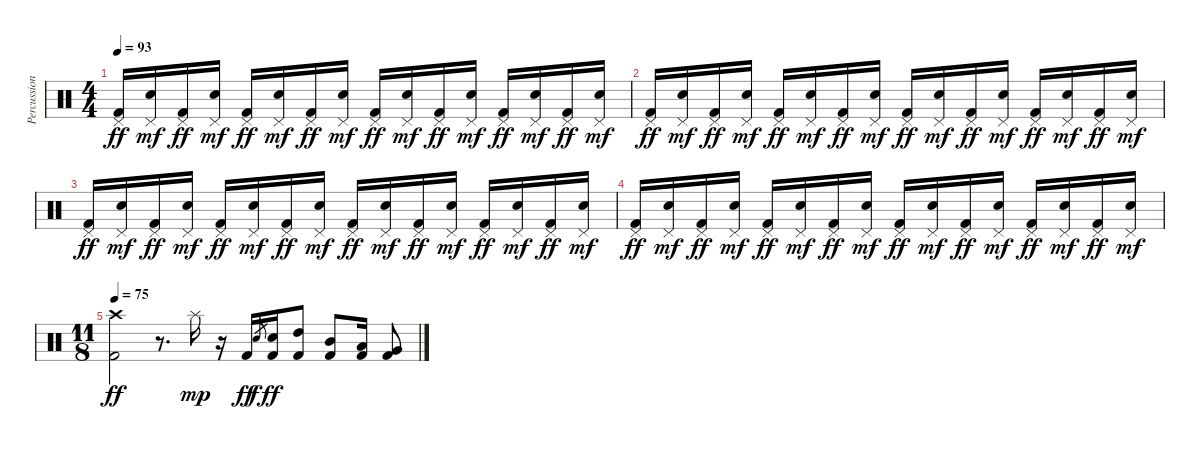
\track ("Percussion" "Percussion") {instrument percussion}
\staff {score}
\articulation defaults
\ts (4 4)
\section ("" "")
\tempo 93
\clef neutral
\ks c
("Pedal Hi-Hat (hit)" "Kick (hit) 2").16{dy ff} ("Pedal Hi-Hat (hit)" "Electric Snare (hit)").16{dy mf} ("Pedal Hi-Hat (hit)" "Kick (hit) 2").16{dy ff} ("Pedal Hi-Hat (hit)" "Electric Snare (hit)").16{dy mf} ("Pedal Hi-Hat (hit)" "Kick (hit) 2").16{dy ff} ("Pedal Hi-Hat (hit)" "Electric Snare (hit)").16{dy mf} ("Pedal Hi-Hat (hit)" "Kick (hit) 2").16{dy ff} ("Pedal Hi-Hat (hit)" "Electric Snare (hit)").16{dy mf} ("Pedal Hi-Hat (hit)" "Kick (hit) 2").16{dy ff} ("Pedal Hi-Hat (hit)" "Electric Snare (hit)").16{dy mf} ("Pedal Hi-Hat (hit)" "Kick (hit) 2").16{dy ff} ("Pedal Hi-Hat (hit)" "Electric Snare (hit)").16{dy mf} ("Pedal Hi-Hat (hit)" "Kick (hit) 2").16{dy ff} ("Pedal Hi-Hat (hit)" "Electric Snare (hit)").16{dy mf} ("Pedal Hi-Hat (hit)" "Kick (hit) 2").16{dy ff} ("Pedal Hi-Hat (hit)" "Electric Snare (hit)").16{dy mf} |
("Pedal Hi-Hat (hit)" "Kick (hit) 2").16{dy ff} ("Pedal Hi-Hat (hit)" "Electric Snare (hit)").16{dy mf} ("Pedal Hi-Hat (hit)" "Kick (hit) 2").16{dy ff} ("Pedal Hi-Hat (hit)" "Electric Snare (hit)").16{dy mf} ("Pedal Hi-Hat (hit)" "Kick (hit) 2").16{dy ff} ("Pedal Hi-Hat (hit)" "Electric Snare (hit)").16{dy mf} ("Pedal Hi-Hat (hit)" "Kick (hit) 2").16{dy ff} ("Pedal Hi-Hat (hit)" "Electric Snare (hit)").16{dy mf} ("Pedal Hi-Hat (hit)" "Kick (hit) 2").16{dy ff} ("Pedal Hi-Hat (hit)" "Electric Snare (hit)").16{dy mf} ("Pedal Hi-Hat (hit)" "Kick (hit) 2").16{dy ff} ("Pedal Hi-Hat (hit)" "Electric Snare (hit)").16{dy mf} ("Pedal Hi-Hat (hit)" "Kick (hit) 2").16{dy ff} ("Pedal Hi-Hat (hit)" "Electric Snare (hit)").16{dy mf} ("Pedal Hi-Hat (hit)" "Kick (hit) 2").16{dy ff} ("Pedal Hi-Hat (hit)" "Electric Snare (hit)").16{dy mf} |
("Pedal Hi-Hat (hit)" "Kick (hit) 2").16{dy ff} ("Pedal Hi-Hat (hit)" "Electric Snare (hit)").16{dy mf} ("Pedal Hi-Hat (hit)" "Kick (hit) 2").16{dy ff} ("Pedal Hi-Hat (hit)" "Electric Snare (hit)").16{dy mf} ("Pedal Hi-Hat (hit)" "Kick (hit) 2").16{dy ff} ("Pedal Hi-Hat (hit)" "Electric Snare (hit)").16{dy mf} ("Pedal Hi-Hat (hit)" "Kick (hit) 2").16{dy ff} ("Pedal Hi-Hat (hit)" "Electric Snare (hit)").16{dy mf} ("Pedal Hi-Hat (hit)" "Kick (hit) 2").16{dy ff} ("Pedal Hi-Hat (hit)" "Electric Snare (hit)").16{dy mf} ("Pedal Hi-Hat (hit)" "Kick (hit) 2").16{dy ff} ("Pedal Hi-Hat (hit)" "Electric Snare (hit)").16{dy mf} ("Pedal Hi-Hat (hit)" "Kick (hit) 2").16{dy ff} ("Pedal Hi-Hat (hit)" "Electric Snare (hit)").16{dy mf} ("Pedal Hi-Hat (hit)" "Kick (hit) 2").16{dy ff} ("Pedal Hi-Hat (hit)" "Electric Snare (hit)").16{dy mf} |
("Pedal Hi-Hat (hit)" "Kick (hit) 2").16{dy ff} ("Pedal Hi-Hat (hit)" "Electric Snare (hit)").16{dy mf} ("Pedal Hi-Hat (hit)" "Kick (hit) 2").16{dy ff} ("Pedal Hi-Hat (hit)" "Electric Snare (hit)").16{dy mf} ("Pedal Hi-Hat (hit)" "Kick (hit) 2").16{dy ff} ("Pedal Hi-Hat (hit)" "Electric Snare (hit)").16{dy mf} ("Pedal Hi-Hat (hit)" "Kick (hit) 2").16{dy ff} ("Pedal Hi-Hat (hit)" "Electric Snare (hit)").16{dy mf} ("Pedal Hi-Hat (hit)" "Kick (hit) 2").16{dy ff} ("Pedal Hi-Hat (hit)" "Electric Snare (hit)").16{dy mf} ("Pedal Hi-Hat (hit)" "Kick (hit) 2").16{dy ff} ("Pedal Hi-Hat (hit)" "Electric Snare (hit)").16{dy mf} ("Pedal Hi-Hat (hit)" "Kick (hit) 2").16{dy ff} ("Pedal Hi-Hat (hit)" "Electric Snare (hit)").16{dy mf} ("Pedal Hi-Hat (hit)" "Kick (hit) 2").16{dy ff} ("Pedal Hi-Hat (hit)" "Electric Snare (hit)").16{dy mf} |
\ts (11 8)
\tempo 75
("Crash high (hit)" "Kick (hit) 2").2{dy ff} r.8{d} "Splash (hit)".16{dy mp} r.16 "Kick (hit) 2".16{dy ff} "Electric Snare (hit)".8{gr dy f} ("Electric Snare (hit)" "Kick (hit) 2").16{dy ff} ("High Tom (hit)" "Kick (hit) 2").8 ("Mid Tom (hit)" "Kick (hit) 2").8 ("Low Tom (hit)" "Kick (hit) 2").16 ("Very Low Tom (hit)" "Kick (hit) 2").8
